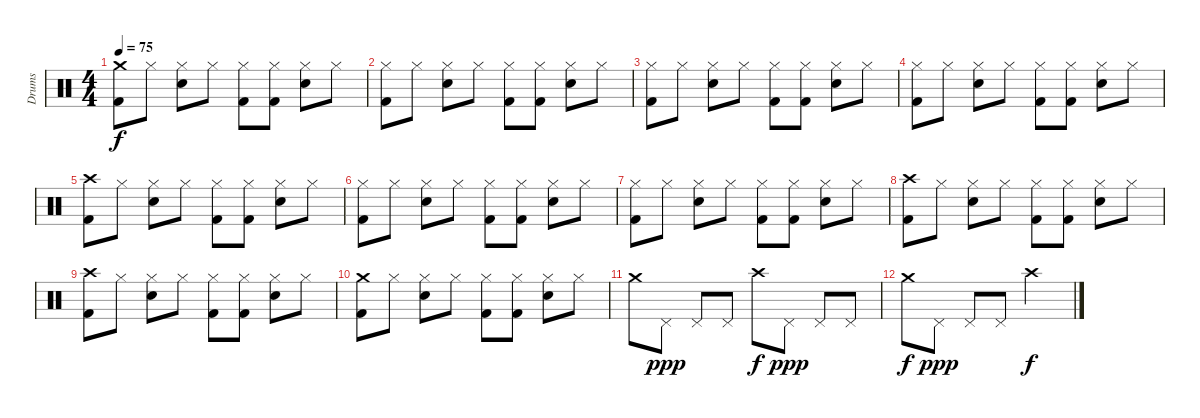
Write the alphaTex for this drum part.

\track ("Drums" "Drums") {instrument percussion}
\staff {score}
\articulation defaults
\ts (4 4)
\tempo 75
\clef neutral
\ks c
("Crash medium (hit)" "Kick (hit) 2").8{dy f} "Hi-Hat (closed)".8 ("Hi-Hat (closed)" "Snare (hit) 2").8 "Hi-Hat (closed)".8 ("Hi-Hat (closed)" "Kick (hit) 2").8 ("Hi-Hat (closed)" "Kick (hit) 2").8 ("Hi-Hat (closed)" "Snare (hit) 2").8 "Hi-Hat (closed)".8 |
("Hi-Hat (closed)" "Kick (hit) 2").8 "Hi-Hat (closed)".8 ("Hi-Hat (closed)" "Snare (hit) 2").8 "Hi-Hat (closed)".8 ("Hi-Hat (closed)" "Kick (hit) 2").8 ("Hi-Hat (closed)" "Kick (hit) 2").8 ("Hi-Hat (closed)" "Snare (hit) 2").8 "Hi-Hat (closed)".8 |
("Hi-Hat (closed)" "Kick (hit) 2").8 "Hi-Hat (closed)".8 ("Hi-Hat (closed)" "Snare (hit) 2").8 "Hi-Hat (closed)".8 ("Hi-Hat (closed)" "Kick (hit) 2").8 ("Hi-Hat (closed)" "Kick (hit) 2").8 ("Hi-Hat (closed)" "Snare (hit) 2").8 "Hi-Hat (closed)".8 |
("Hi-Hat (closed)" "Kick (hit) 2").8 "Hi-Hat (closed)".8 ("Hi-Hat (closed)" "Snare (hit) 2").8 "Hi-Hat (closed)".8 ("Hi-Hat (closed)" "Kick (hit) 2").8 ("Hi-Hat (closed)" "Kick (hit) 2").8 ("Hi-Hat (closed)" "Snare (hit) 2").8 "Hi-Hat (closed)".8 |
("Crash high (hit)" "Kick (hit) 2").8 "Hi-Hat (closed)".8 ("Hi-Hat (closed)" "Snare (hit) 2").8 "Hi-Hat (closed)".8 ("Hi-Hat (closed)" "Kick (hit) 2").8 ("Hi-Hat (closed)" "Kick (hit) 2").8 ("Hi-Hat (closed)" "Snare (hit) 2").8 "Hi-Hat (closed)".8 |
("Hi-Hat (closed)" "Kick (hit) 2").8 "Hi-Hat (closed)".8 ("Hi-Hat (closed)" "Snare (hit) 2").8 "Hi-Hat (closed)".8 ("Hi-Hat (closed)" "Kick (hit) 2").8 ("Hi-Hat (closed)" "Kick (hit) 2").8 ("Hi-Hat (closed)" "Snare (hit) 2").8 "Hi-Hat (closed)".8 |
("Hi-Hat (closed)" "Kick (hit) 2").8 "Hi-Hat (closed)".8 ("Hi-Hat (closed)" "Snare (hit) 2").8 "Hi-Hat (closed)".8 ("Hi-Hat (closed)" "Kick (hit) 2").8 ("Hi-Hat (closed)" "Kick (hit) 2").8 ("Hi-Hat (closed)" "Snare (hit) 2").8 "Hi-Hat (closed)".8 |
("Crash high (hit)" "Kick (hit) 2").8 "Hi-Hat (closed)".8 ("Hi-Hat (closed)" "Snare (hit) 2").8 "Hi-Hat (closed)".8 ("Hi-Hat (closed)" "Kick (hit) 2").8 ("Hi-Hat (closed)" "Kick (hit) 2").8 ("Hi-Hat (closed)" "Snare (hit) 2").8 "Hi-Hat (closed)".8 |
("Crash high (hit)" "Kick (hit) 2").8 "Hi-Hat (closed)".8 ("Hi-Hat (closed)" "Snare (hit) 2").8 "Hi-Hat (closed)".8 ("Hi-Hat (closed)" "Kick (hit) 2").8 ("Hi-Hat (closed)" "Kick (hit) 2").8 ("Hi-Hat (closed)" "Snare (hit) 2").8 "Hi-Hat (closed)".8 |
("Crash medium (hit)" "Kick (hit) 2").8 "Hi-Hat (closed)".8 ("Hi-Hat (closed)" "Snare (hit) 2").8 "Hi-Hat (closed)".8 ("Hi-Hat (closed)" "Kick (hit) 2").8 ("Hi-Hat (closed)" "Kick (hit) 2").8 ("Hi-Hat (closed)" "Snare (hit) 2").8 "Hi-Hat (closed)".8 |
"Crash medium (hit)".8 "Pedal Hi-Hat (hit)".8{dy ppp} "Pedal Hi-Hat (hit)".8 "Pedal Hi-Hat (hit)".8 "Crash high (hit)".8{dy f} "Pedal Hi-Hat (hit)".8{dy ppp} "Pedal Hi-Hat (hit)".8 "Pedal Hi-Hat (hit)".8 |
"Crash medium (hit)".8{dy f} "Pedal Hi-Hat (hit)".8{dy ppp} "Pedal Hi-Hat (hit)".8 "Pedal Hi-Hat (hit)".8 "Crash high (hit)".2{dy f}
